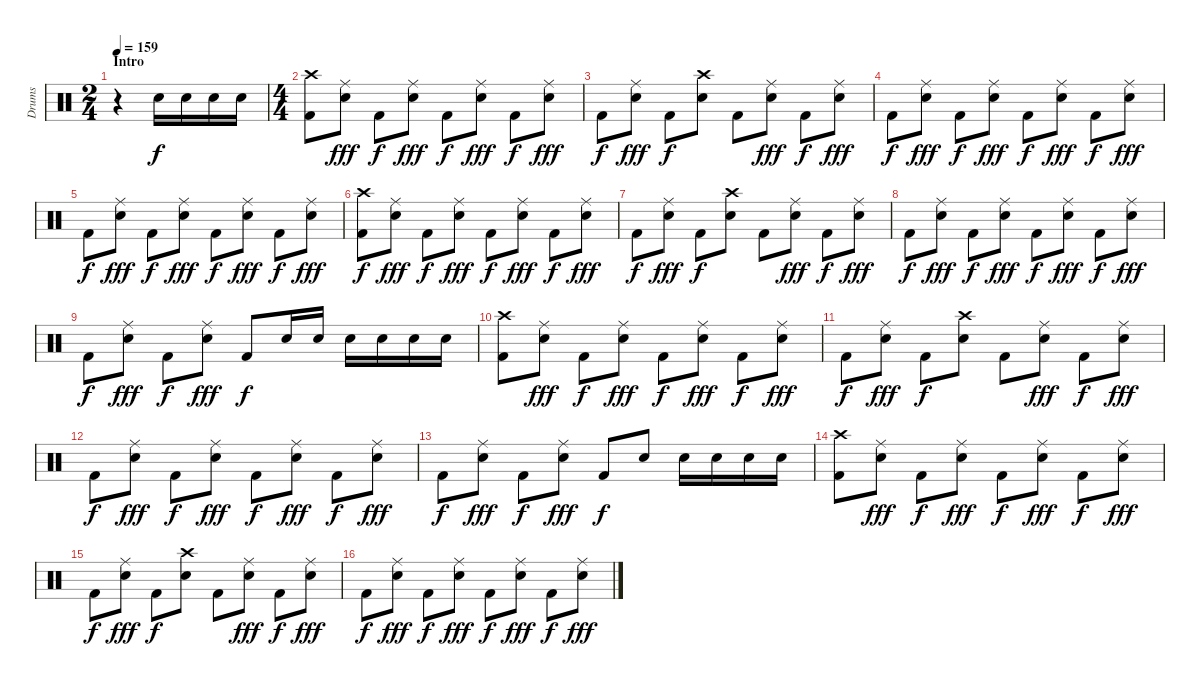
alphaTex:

\track ("Drums" "Drums") {instrument percussion}
\staff {score}
\articulation defaults
\ts (2 4)
\section ("" "Intro")
\tempo 159
\clef neutral
\ks c
r.4{dy f} "Snare (hit) 2".16 "Snare (hit) 2".16 "Snare (hit) 2".16 "Snare (hit) 2".16 |
\ts (4 4)
("Crash high (hit)" "Kick (hit) 2").8 ("Ride (middle)" "Snare (hit) 2").8{dy fff} "Kick (hit) 2".8{dy f} ("Ride (middle)" "Snare (hit) 2").8{dy fff} "Kick (hit) 2".8{dy f} ("Ride (middle)" "Snare (hit) 2").8{dy fff} "Kick (hit) 2".8{dy f} ("Ride (middle)" "Snare (hit) 2").8{dy fff} |
"Kick (hit) 2".8{dy f} ("Ride (middle)" "Snare (hit) 2").8{dy fff} "Kick (hit) 2".8{dy f} ("Crash high (hit)" "Snare (hit) 2").8 "Kick (hit) 2".8 ("Ride (middle)" "Snare (hit) 2").8{dy fff} "Kick (hit) 2".8{dy f} ("Ride (middle)" "Snare (hit) 2").8{dy fff} |
"Kick (hit) 2".8{dy f} ("Ride (middle)" "Snare (hit) 2").8{dy fff} "Kick (hit) 2".8{dy f} ("Ride (middle)" "Snare (hit) 2").8{dy fff} "Kick (hit) 2".8{dy f} ("Ride (middle)" "Snare (hit) 2").8{dy fff} "Kick (hit) 2".8{dy f} ("Ride (middle)" "Snare (hit) 2").8{dy fff} |
"Kick (hit) 2".8{dy f} ("Ride (middle)" "Snare (hit) 2").8{dy fff} "Kick (hit) 2".8{dy f} ("Ride (middle)" "Snare (hit) 2").8{dy fff} "Kick (hit) 2".8{dy f} ("Ride (middle)" "Snare (hit) 2").8{dy fff} "Kick (hit) 2".8{dy f} ("Ride (middle)" "Snare (hit) 2").8{dy fff} |
("Crash high (hit)" "Kick (hit) 2").8{dy f} ("Ride (middle)" "Snare (hit) 2").8{dy fff} "Kick (hit) 2".8{dy f} ("Ride (middle)" "Snare (hit) 2").8{dy fff} "Kick (hit) 2".8{dy f} ("Ride (middle)" "Snare (hit) 2").8{dy fff} "Kick (hit) 2".8{dy f} ("Ride (middle)" "Snare (hit) 2").8{dy fff} |
"Kick (hit) 2".8{dy f} ("Ride (middle)" "Snare (hit) 2").8{dy fff} "Kick (hit) 2".8{dy f} ("Crash high (hit)" "Snare (hit) 2").8 "Kick (hit) 2".8 ("Ride (middle)" "Snare (hit) 2").8{dy fff} "Kick (hit) 2".8{dy f} ("Ride (middle)" "Snare (hit) 2").8{dy fff} |
"Kick (hit) 2".8{dy f} ("Ride (middle)" "Snare (hit) 2").8{dy fff} "Kick (hit) 2".8{dy f} ("Ride (middle)" "Snare (hit) 2").8{dy fff} "Kick (hit) 2".8{dy f} ("Ride (middle)" "Snare (hit) 2").8{dy fff} "Kick (hit) 2".8{dy f} ("Ride (middle)" "Snare (hit) 2").8{dy fff} |
"Kick (hit) 2".8{dy f} ("Ride (middle)" "Snare (hit) 2").8{dy fff} "Kick (hit) 2".8{dy f} ("Ride (middle)" "Snare (hit) 2").8{dy fff} "Kick (hit) 2".8{dy f} "Snare (hit) 2".16 "Snare (hit) 2".16 "Snare (hit) 2".16 "Snare (hit) 2".16 "Snare (hit) 2".16 "Snare (hit) 2".16 |
("Crash high (hit)" "Kick (hit) 2").8 ("Ride (middle)" "Snare (hit) 2").8{dy fff} "Kick (hit) 2".8{dy f} ("Ride (middle)" "Snare (hit) 2").8{dy fff} "Kick (hit) 2".8{dy f} ("Ride (middle)" "Snare (hit) 2").8{dy fff} "Kick (hit) 2".8{dy f} ("Ride (middle)" "Snare (hit) 2").8{dy fff} |
"Kick (hit) 2".8{dy f} ("Ride (middle)" "Snare (hit) 2").8{dy fff} "Kick (hit) 2".8{dy f} ("Crash high (hit)" "Snare (hit) 2").8 "Kick (hit) 2".8 ("Ride (middle)" "Snare (hit) 2").8{dy fff} "Kick (hit) 2".8{dy f} ("Ride (middle)" "Snare (hit) 2").8{dy fff} |
"Kick (hit) 2".8{dy f} ("Ride (middle)" "Snare (hit) 2").8{dy fff} "Kick (hit) 2".8{dy f} ("Ride (middle)" "Snare (hit) 2").8{dy fff} "Kick (hit) 2".8{dy f} ("Ride (middle)" "Snare (hit) 2").8{dy fff} "Kick (hit) 2".8{dy f} ("Ride (middle)" "Snare (hit) 2").8{dy fff} |
"Kick (hit) 2".8{dy f} ("Ride (middle)" "Snare (hit) 2").8{dy fff} "Kick (hit) 2".8{dy f} ("Ride (middle)" "Snare (hit) 2").8{dy fff} "Kick (hit) 2".8{dy f} "Snare (hit) 2".8 "Snare (hit) 2".16 "Snare (hit) 2".16 "Snare (hit) 2".16 "Snare (hit) 2".16 |
("Crash high (hit)" "Kick (hit) 2").8 ("Ride (middle)" "Snare (hit) 2").8{dy fff} "Kick (hit) 2".8{dy f} ("Ride (middle)" "Snare (hit) 2").8{dy fff} "Kick (hit) 2".8{dy f} ("Ride (middle)" "Snare (hit) 2").8{dy fff} "Kick (hit) 2".8{dy f} ("Ride (middle)" "Snare (hit) 2").8{dy fff} |
"Kick (hit) 2".8{dy f} ("Ride (middle)" "Snare (hit) 2").8{dy fff} "Kick (hit) 2".8{dy f} ("Crash high (hit)" "Snare (hit) 2").8 "Kick (hit) 2".8 ("Ride (middle)" "Snare (hit) 2").8{dy fff} "Kick (hit) 2".8{dy f} ("Ride (middle)" "Snare (hit) 2").8{dy fff} |
"Kick (hit) 2".8{dy f} ("Ride (middle)" "Snare (hit) 2").8{dy fff} "Kick (hit) 2".8{dy f} ("Ride (middle)" "Snare (hit) 2").8{dy fff} "Kick (hit) 2".8{dy f} ("Ride (middle)" "Snare (hit) 2").8{dy fff} "Kick (hit) 2".8{dy f} ("Ride (middle)" "Snare (hit) 2").8{dy fff}
